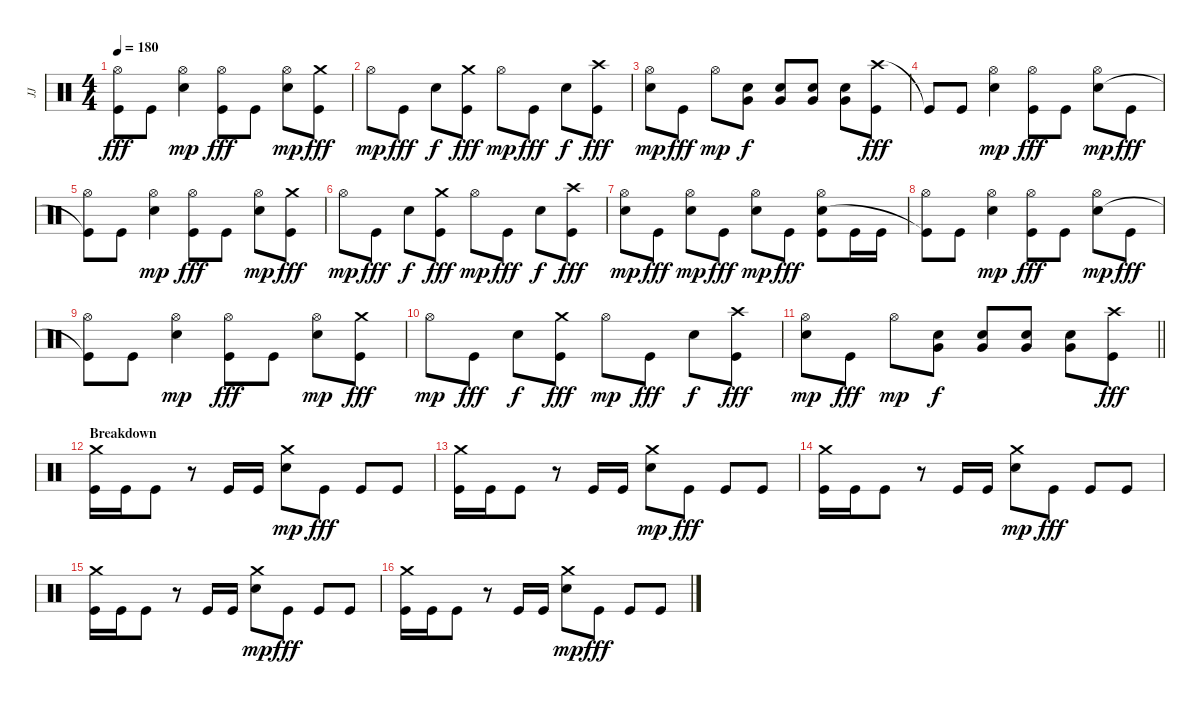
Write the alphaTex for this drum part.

\track ("JJ" "JJ") {mute instrument percussion}
\staff {score}
\articulation defaults
\ts (4 4)
\tempo 180
\clef neutral
\ks c
("Hi-Hat (open)" "Kick (hit)"{t}).8{dy fff} "Kick (hit)".8 ("Hi-Hat (open)" "Snare (hit) 2").4{dy mp} ("Hi-Hat (open)" "Kick (hit)").8{dy fff} "Kick (hit)".8 ("Hi-Hat (open)" "Snare (hit) 2").8{dy mp} ("Crash medium (hit)" "Kick (hit)").8{dy fff} |
"Hi-Hat (open)".8{dy mp} "Kick (hit)".8{dy fff} "Snare (hit) 2".8{dy f} ("Crash medium (hit)" "Kick (hit)").8{dy fff} "Hi-Hat (open)".8{dy mp} "Kick (hit)".8{dy fff} "Snare (hit) 2".8{dy f} ("Crash high (hit)" "Kick (hit)").8{dy fff} |
("Hi-Hat (open)" "Snare (hit) 2").8{dy mp} "Kick (hit)".8{dy fff} "Hi-Hat (open)".8{dy mp} ("Snare (hit) 2" "Very Low Tom (hit)").8{dy f} ("Snare (hit) 2" "Very Low Tom (hit)").8 ("Snare (hit) 2" "Very Low Tom (hit)").8 ("Snare (hit) 2" "Very Low Tom (hit)").8 ("Crash high (hit)" "Kick (hit)").8{dy fff} |
"Kick (hit)"{t}.8 "Kick (hit)".8 ("Hi-Hat (open)" "Snare (hit) 2").4{dy mp} ("Hi-Hat (open)" "Kick (hit)").8{dy fff} "Kick (hit)".8 ("Hi-Hat (open)" "Snare (hit) 2").8{dy mp} "Kick (hit)".8{dy fff} |
("Hi-Hat (open)" "Kick (hit)"{t}).8 "Kick (hit)".8 ("Hi-Hat (open)" "Snare (hit) 2").4{dy mp} ("Hi-Hat (open)" "Kick (hit)").8{dy fff} "Kick (hit)".8 ("Hi-Hat (open)" "Snare (hit) 2").8{dy mp} ("Crash medium (hit)" "Kick (hit)").8{dy fff} |
"Hi-Hat (open)".8{dy mp} "Kick (hit)".8{dy fff} "Snare (hit) 2".8{dy f} ("Crash medium (hit)" "Kick (hit)").8{dy fff} "Hi-Hat (open)".8{dy mp} "Kick (hit)".8{dy fff} "Snare (hit) 2".8{dy f} ("Crash high (hit)" "Kick (hit)").8{dy fff} |
("Hi-Hat (open)" "Snare (hit) 2").8{dy mp} "Kick (hit)".8{dy fff} ("Hi-Hat (open)" "Snare (hit) 2").8{dy mp} "Kick (hit)".8{dy fff} ("Hi-Hat (open)" "Snare (hit) 2").8{dy mp} "Kick (hit)".8{dy fff} ("Hi-Hat (open)" "Snare (hit) 2" "Kick (hit)").8 "Kick (hit)".16 "Kick (hit)".16 |
("Hi-Hat (open)" "Kick (hit)"{t}).8 "Kick (hit)".8 ("Hi-Hat (open)" "Snare (hit) 2").4{dy mp} ("Hi-Hat (open)" "Kick (hit)").8{dy fff} "Kick (hit)".8 ("Hi-Hat (open)" "Snare (hit) 2").8{dy mp} "Kick (hit)".8{dy fff} |
("Hi-Hat (open)" "Kick (hit)"{t}).8 "Kick (hit)".8 ("Hi-Hat (open)" "Snare (hit) 2").4{dy mp} ("Hi-Hat (open)" "Kick (hit)").8{dy fff} "Kick (hit)".8 ("Hi-Hat (open)" "Snare (hit) 2").8{dy mp} ("Crash medium (hit)" "Kick (hit)").8{dy fff} |
"Hi-Hat (open)".8{dy mp} "Kick (hit)".8{dy fff} "Snare (hit) 2".8{dy f} ("Crash medium (hit)" "Kick (hit)").8{dy fff} "Hi-Hat (open)".8{dy mp} "Kick (hit)".8{dy fff} "Snare (hit) 2".8{dy f} ("Crash high (hit)" "Kick (hit)").8{dy fff} |
\barLineRight lightlight
("Hi-Hat (open)" "Snare (hit) 2").8{dy mp} "Kick (hit)".8{dy fff} "Hi-Hat (open)".8{dy mp} ("Snare (hit) 2" "Very Low Tom (hit)").8{dy f} ("Snare (hit) 2" "Very Low Tom (hit)").8 ("Snare (hit) 2" "Very Low Tom (hit)").8 ("Snare (hit) 2" "Very Low Tom (hit)").8 ("Crash high (hit)" "Kick (hit)").8{dy fff} |
\section ("" "Breakdown")
("Crash medium (hit)" "Kick (hit)").16 "Kick (hit)".16 "Kick (hit)".8 r.8 "Kick (hit)".16 "Kick (hit)".16 ("Crash medium (hit)" "Snare (hit) 2").8{dy mp} "Kick (hit)".8{dy fff} "Kick (hit)".8 "Kick (hit)".8 |
("Crash medium (hit)" "Kick (hit)").16 "Kick (hit)".16 "Kick (hit)".8 r.8 "Kick (hit)".16 "Kick (hit)".16 ("Crash medium (hit)" "Snare (hit) 2").8{dy mp} "Kick (hit)".8{dy fff} "Kick (hit)".8 "Kick (hit)".8 |
("Crash medium (hit)" "Kick (hit)").16 "Kick (hit)".16 "Kick (hit)".8 r.8 "Kick (hit)".16 "Kick (hit)".16 ("Crash medium (hit)" "Snare (hit) 2").8{dy mp} "Kick (hit)".8{dy fff} "Kick (hit)".8 "Kick (hit)".8 |
("Crash medium (hit)" "Kick (hit)").16 "Kick (hit)".16 "Kick (hit)".8 r.8 "Kick (hit)".16 "Kick (hit)".16 ("Crash medium (hit)" "Snare (hit) 2").8{dy mp} "Kick (hit)".8{dy fff} "Kick (hit)".8 "Kick (hit)".8 |
("Crash medium (hit)" "Kick (hit)").16 "Kick (hit)".16 "Kick (hit)".8 r.8 "Kick (hit)".16 "Kick (hit)".16 ("Crash medium (hit)" "Snare (hit) 2").8{dy mp} "Kick (hit)".8{dy fff} "Kick (hit)".8 "Kick (hit)".8
